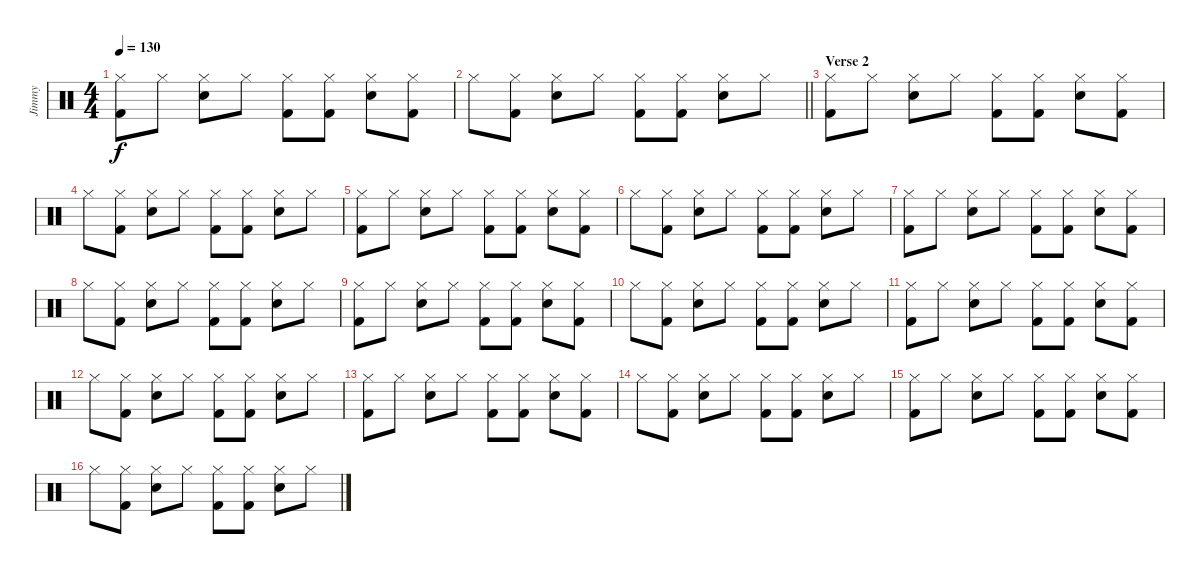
\track ("Jimmy" "Jimmy") {instrument percussion}
\staff {score}
\articulation defaults
\ts (4 4)
\tempo 130
\clef neutral
\ks c
("Hi-Hat (closed)" "Kick (hit) 2").8{dy f} "Hi-Hat (closed)".8 ("Hi-Hat (closed)" "Electric Snare (hit)").8 "Hi-Hat (closed)".8 ("Hi-Hat (closed)" "Kick (hit) 2").8 ("Hi-Hat (closed)" "Kick (hit) 2").8 ("Hi-Hat (closed)" "Electric Snare (hit)").8 ("Hi-Hat (closed)" "Kick (hit) 2").8 |
\barLineRight lightlight "Hi-Hat (closed)".8
("Hi-Hat (closed)" "Kick (hit) 2").8 ("Hi-Hat (closed)" "Electric Snare (hit)").8 "Hi-Hat (closed)".8 ("Hi-Hat (closed)" "Kick (hit) 2").8 ("Hi-Hat (closed)" "Kick (hit) 2").8 ("Hi-Hat (closed)" "Electric Snare (hit)").8 "Hi-Hat (closed)".8 |
\section ("" "Verse 2")
("Hi-Hat (closed)" "Kick (hit) 2").8 "Hi-Hat (closed)".8 ("Hi-Hat (closed)" "Electric Snare (hit)").8 "Hi-Hat (closed)".8 ("Hi-Hat (closed)" "Kick (hit) 2").8 ("Hi-Hat (closed)" "Kick (hit) 2").8 ("Hi-Hat (closed)" "Electric Snare (hit)").8 ("Hi-Hat (closed)" "Kick (hit) 2").8 |
"Hi-Hat (closed)".8 ("Hi-Hat (closed)" "Kick (hit) 2").8 ("Hi-Hat (closed)" "Electric Snare (hit)").8 "Hi-Hat (closed)".8 ("Hi-Hat (closed)" "Kick (hit) 2").8 ("Hi-Hat (closed)" "Kick (hit) 2").8 ("Hi-Hat (closed)" "Electric Snare (hit)").8 "Hi-Hat (closed)".8 |
("Hi-Hat (closed)" "Kick (hit) 2").8 "Hi-Hat (closed)".8 ("Hi-Hat (closed)" "Electric Snare (hit)").8 "Hi-Hat (closed)".8 ("Hi-Hat (closed)" "Kick (hit) 2").8 ("Hi-Hat (closed)" "Kick (hit) 2").8 ("Hi-Hat (closed)" "Electric Snare (hit)").8 ("Hi-Hat (closed)" "Kick (hit) 2").8 |
"Hi-Hat (closed)".8 ("Hi-Hat (closed)" "Kick (hit) 2").8 ("Hi-Hat (closed)" "Electric Snare (hit)").8 "Hi-Hat (closed)".8 ("Hi-Hat (closed)" "Kick (hit) 2").8 ("Hi-Hat (closed)" "Kick (hit) 2").8 ("Hi-Hat (closed)" "Electric Snare (hit)").8 "Hi-Hat (closed)".8 |
("Hi-Hat (closed)" "Kick (hit) 2").8 "Hi-Hat (closed)".8 ("Hi-Hat (closed)" "Electric Snare (hit)").8 "Hi-Hat (closed)".8 ("Hi-Hat (closed)" "Kick (hit) 2").8 ("Hi-Hat (closed)" "Kick (hit) 2").8 ("Hi-Hat (closed)" "Electric Snare (hit)").8 ("Hi-Hat (closed)" "Kick (hit) 2").8 |
"Hi-Hat (closed)".8 ("Hi-Hat (closed)" "Kick (hit) 2").8 ("Hi-Hat (closed)" "Electric Snare (hit)").8 "Hi-Hat (closed)".8 ("Hi-Hat (closed)" "Kick (hit) 2").8 ("Hi-Hat (closed)" "Kick (hit) 2").8 ("Hi-Hat (closed)" "Electric Snare (hit)").8 "Hi-Hat (closed)".8 |
("Hi-Hat (closed)" "Kick (hit) 2").8 "Hi-Hat (closed)".8 ("Hi-Hat (closed)" "Electric Snare (hit)").8 "Hi-Hat (closed)".8 ("Hi-Hat (closed)" "Kick (hit) 2").8 ("Hi-Hat (closed)" "Kick (hit) 2").8 ("Hi-Hat (closed)" "Electric Snare (hit)").8 ("Hi-Hat (closed)" "Kick (hit) 2").8 |
"Hi-Hat (closed)".8 ("Hi-Hat (closed)" "Kick (hit) 2").8 ("Hi-Hat (closed)" "Electric Snare (hit)").8 "Hi-Hat (closed)".8 ("Hi-Hat (closed)" "Kick (hit) 2").8 ("Hi-Hat (closed)" "Kick (hit) 2").8 ("Hi-Hat (closed)" "Electric Snare (hit)").8 "Hi-Hat (closed)".8 |
("Hi-Hat (closed)" "Kick (hit) 2").8 "Hi-Hat (closed)".8 ("Hi-Hat (closed)" "Electric Snare (hit)").8 "Hi-Hat (closed)".8 ("Hi-Hat (closed)" "Kick (hit) 2").8 ("Hi-Hat (closed)" "Kick (hit) 2").8 ("Hi-Hat (closed)" "Electric Snare (hit)").8 ("Hi-Hat (closed)" "Kick (hit) 2").8 |
"Hi-Hat (closed)".8 ("Hi-Hat (closed)" "Kick (hit) 2").8 ("Hi-Hat (closed)" "Electric Snare (hit)").8 "Hi-Hat (closed)".8 ("Hi-Hat (closed)" "Kick (hit) 2").8 ("Hi-Hat (closed)" "Kick (hit) 2").8 ("Hi-Hat (closed)" "Electric Snare (hit)").8 "Hi-Hat (closed)".8 |
("Hi-Hat (closed)" "Kick (hit) 2").8 "Hi-Hat (closed)".8 ("Hi-Hat (closed)" "Electric Snare (hit)").8 "Hi-Hat (closed)".8 ("Hi-Hat (closed)" "Kick (hit) 2").8 ("Hi-Hat (closed)" "Kick (hit) 2").8 ("Hi-Hat (closed)" "Electric Snare (hit)").8 ("Hi-Hat (closed)" "Kick (hit) 2").8 |
"Hi-Hat (closed)".8 ("Hi-Hat (closed)" "Kick (hit) 2").8 ("Hi-Hat (closed)" "Electric Snare (hit)").8 "Hi-Hat (closed)".8 ("Hi-Hat (closed)" "Kick (hit) 2").8 ("Hi-Hat (closed)" "Kick (hit) 2").8 ("Hi-Hat (closed)" "Electric Snare (hit)").8 "Hi-Hat (closed)".8 |
("Hi-Hat (closed)" "Kick (hit) 2").8 "Hi-Hat (closed)".8 ("Hi-Hat (closed)" "Electric Snare (hit)").8 "Hi-Hat (closed)".8 ("Hi-Hat (closed)" "Kick (hit) 2").8 ("Hi-Hat (closed)" "Kick (hit) 2").8 ("Hi-Hat (closed)" "Electric Snare (hit)").8 ("Hi-Hat (closed)" "Kick (hit) 2").8 |
"Hi-Hat (closed)".8 ("Hi-Hat (closed)" "Kick (hit) 2").8 ("Hi-Hat (closed)" "Electric Snare (hit)").8 "Hi-Hat (closed)".8 ("Hi-Hat (closed)" "Kick (hit) 2").8 ("Hi-Hat (closed)" "Kick (hit) 2").8 ("Hi-Hat (closed)" "Electric Snare (hit)").8 "Hi-Hat (closed)".8
